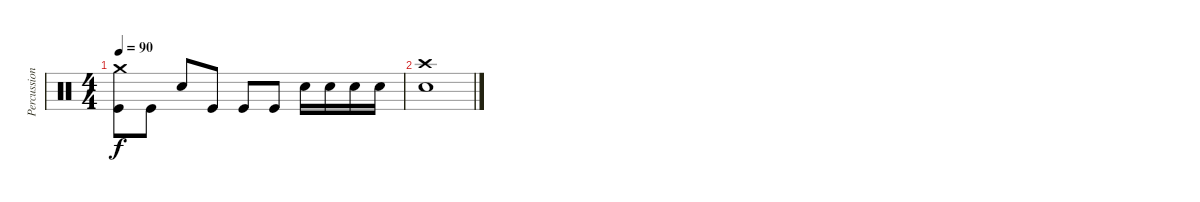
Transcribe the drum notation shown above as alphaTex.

\track ("Percussion" "Percussion") {instrument percussion}
\staff {score}
\articulation defaults
\ts (4 4)
\tempo 90
\clef neutral
\ks c
("Kick (hit)" "Crash medium (hit)").8{dy f} "Kick (hit)".8 "Electric Snare (hit)".8 "Kick (hit)".8 "Kick (hit)".8 "Kick (hit)".8 "Electric Snare (hit)".16 "Electric Snare (hit)".16 "Snare (hit) 2".16 "Snare (hit) 2".16 |
("Crash high (hit)" "Electric Snare (hit)").1
